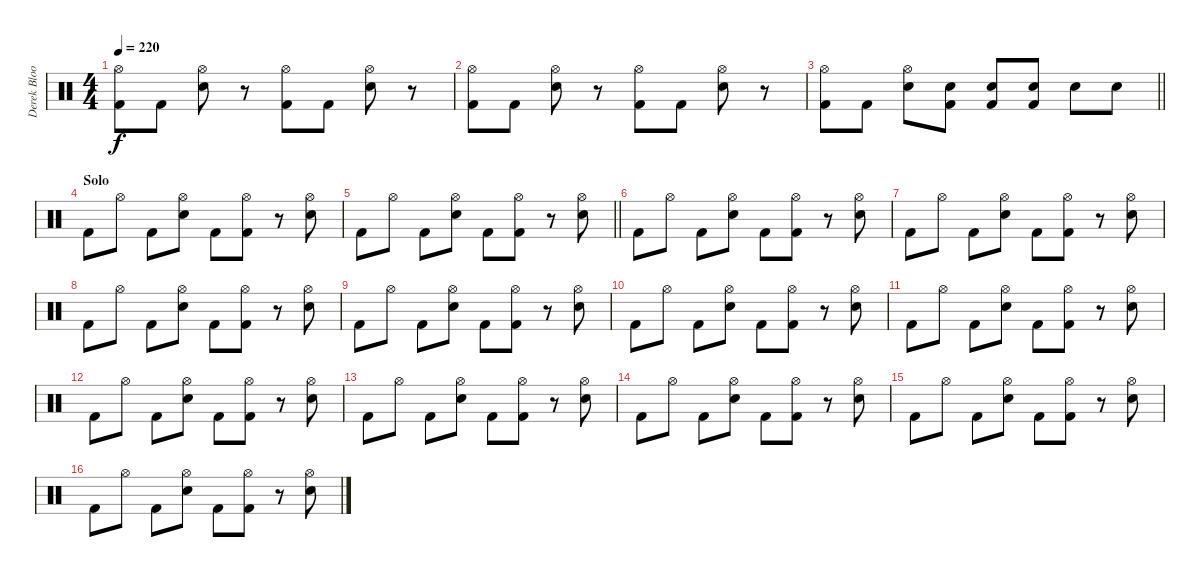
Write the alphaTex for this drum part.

\track ("Derek Bloom - Drums" "Derek Bloo") {instrument percussion}
\staff {score}
\articulation defaults
\ts (4 4)
\tempo 220
\clef neutral
\ks c
("Hi-Hat (open)" "Kick (hit) 2").8{dy f} "Kick (hit) 2".8 ("Hi-Hat (open)" "Electric Snare (hit)").8 r.8 ("Hi-Hat (open)" "Kick (hit) 2").8 "Kick (hit) 2".8 ("Hi-Hat (open)" "Electric Snare (hit)").8 r.8 |
("Hi-Hat (open)" "Kick (hit) 2").8 "Kick (hit) 2".8 ("Hi-Hat (open)" "Electric Snare (hit)").8 r.8 ("Hi-Hat (open)" "Kick (hit) 2").8 "Kick (hit) 2".8 ("Hi-Hat (open)" "Electric Snare (hit)").8 r.8 |
\barLineRight lightlight
("Hi-Hat (open)" "Kick (hit) 2").8 "Kick (hit) 2".8 ("Hi-Hat (open)" "Electric Snare (hit)").8 ("Electric Snare (hit)" "Kick (hit) 2").8 ("Electric Snare (hit)" "Kick (hit) 2").8 ("Electric Snare (hit)" "Kick (hit) 2").8 "Electric Snare (hit)".8 "Electric Snare (hit)".8 |
\section ("" "Solo")
"Kick (hit) 2".8 "Hi-Hat (open)".8 "Kick (hit) 2".8 ("Hi-Hat (open)" "Electric Snare (hit)").8 "Kick (hit) 2".8 ("Hi-Hat (open)" "Kick (hit) 2").8 r.8 ("Hi-Hat (open)" "Electric Snare (hit)").8 |
\barLineRight lightlight "Kick (hit) 2".8 "Hi-Hat (open)".8 "Kick (hit) 2".8
("Hi-Hat (open)" "Electric Snare (hit)").8 "Kick (hit) 2".8 ("Hi-Hat (open)" "Kick (hit) 2").8 r.8 ("Hi-Hat (open)" "Electric Snare (hit)").8 |
\section ("" "")
"Kick (hit) 2".8 "Hi-Hat (open)".8 "Kick (hit) 2".8 ("Hi-Hat (open)" "Electric Snare (hit)").8 "Kick (hit) 2".8 ("Hi-Hat (open)" "Kick (hit) 2").8 r.8 ("Hi-Hat (open)" "Electric Snare (hit)").8 |
"Kick (hit) 2".8 "Hi-Hat (open)".8 "Kick (hit) 2".8 ("Hi-Hat (open)" "Electric Snare (hit)").8 "Kick (hit) 2".8 ("Hi-Hat (open)" "Kick (hit) 2").8 r.8 ("Hi-Hat (open)" "Electric Snare (hit)").8 |
"Kick (hit) 2".8 "Hi-Hat (open)".8 "Kick (hit) 2".8 ("Hi-Hat (open)" "Electric Snare (hit)").8 "Kick (hit) 2".8 ("Hi-Hat (open)" "Kick (hit) 2").8 r.8 ("Hi-Hat (open)" "Electric Snare (hit)").8 |
"Kick (hit) 2".8 "Hi-Hat (open)".8 "Kick (hit) 2".8 ("Hi-Hat (open)" "Electric Snare (hit)").8 "Kick (hit) 2".8 ("Hi-Hat (open)" "Kick (hit) 2").8 r.8 ("Hi-Hat (open)" "Electric Snare (hit)").8 |
"Kick (hit) 2".8 "Hi-Hat (open)".8 "Kick (hit) 2".8 ("Hi-Hat (open)" "Electric Snare (hit)").8 "Kick (hit) 2".8 ("Hi-Hat (open)" "Kick (hit) 2").8 r.8 ("Hi-Hat (open)" "Electric Snare (hit)").8 |
"Kick (hit) 2".8 "Hi-Hat (open)".8 "Kick (hit) 2".8 ("Hi-Hat (open)" "Electric Snare (hit)").8 "Kick (hit) 2".8 ("Hi-Hat (open)" "Kick (hit) 2").8 r.8 ("Hi-Hat (open)" "Electric Snare (hit)").8 |
"Kick (hit) 2".8 "Hi-Hat (open)".8 "Kick (hit) 2".8 ("Hi-Hat (open)" "Electric Snare (hit)").8 "Kick (hit) 2".8 ("Hi-Hat (open)" "Kick (hit) 2").8 r.8 ("Hi-Hat (open)" "Electric Snare (hit)").8 |
"Kick (hit) 2".8 "Hi-Hat (open)".8 "Kick (hit) 2".8 ("Hi-Hat (open)" "Electric Snare (hit)").8 "Kick (hit) 2".8 ("Hi-Hat (open)" "Kick (hit) 2").8 r.8 ("Hi-Hat (open)" "Electric Snare (hit)").8 |
"Kick (hit) 2".8 "Hi-Hat (open)".8 "Kick (hit) 2".8 ("Hi-Hat (open)" "Electric Snare (hit)").8 "Kick (hit) 2".8 ("Hi-Hat (open)" "Kick (hit) 2").8 r.8 ("Hi-Hat (open)" "Electric Snare (hit)").8 |
"Kick (hit) 2".8 "Hi-Hat (open)".8 "Kick (hit) 2".8 ("Hi-Hat (open)" "Electric Snare (hit)").8 "Kick (hit) 2".8 ("Hi-Hat (open)" "Kick (hit) 2").8 r.8 ("Hi-Hat (open)" "Electric Snare (hit)").8 |
"Kick (hit) 2".8 "Hi-Hat (open)".8 "Kick (hit) 2".8 ("Hi-Hat (open)" "Electric Snare (hit)").8 "Kick (hit) 2".8 ("Hi-Hat (open)" "Kick (hit) 2").8 r.8 ("Hi-Hat (open)" "Electric Snare (hit)").8
